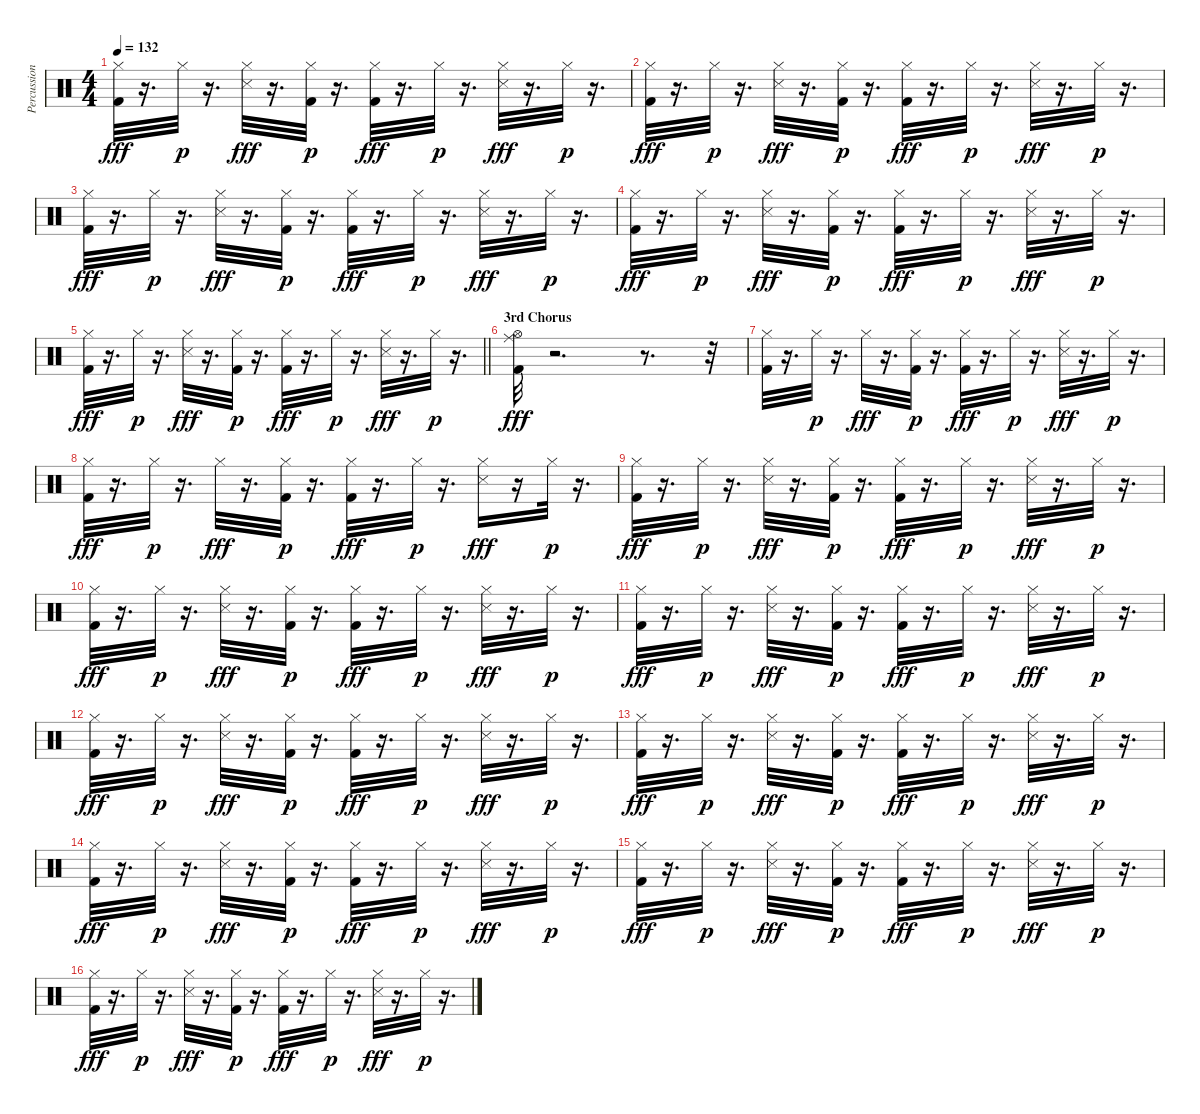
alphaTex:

\track ("Percussion" "Percussion") {instrument percussion}
\staff {score}
\articulation defaults
\ts (4 4)
\tempo 132
\clef neutral
\ks c
("Kick (hit) 2" "Hi-Hat (closed)").32{dy fff} r.16{d} "Hi-Hat (closed)".32{dy p} r.16{d} ("Hi-Hat (closed)" "Snare (side stick) 3").32{dy fff} r.16{d} ("Kick (hit) 2" "Hi-Hat (closed)").32{dy p} r.16{d} ("Kick (hit) 2" "Hi-Hat (closed)").32{dy fff} r.16{d} "Hi-Hat (closed)".32{dy p} r.16{d} ("Snare (side stick) 3" "Hi-Hat (closed)").32{dy fff} r.16{d} "Hi-Hat (closed)".32{dy p} r.16{d} |
("Kick (hit) 2" "Hi-Hat (closed)").32{dy fff} r.16{d} "Hi-Hat (closed)".32{dy p} r.16{d} ("Snare (side stick) 3" "Hi-Hat (closed)").32{dy fff} r.16{d} ("Kick (hit) 2" "Hi-Hat (closed)").32{dy p} r.16{d} ("Kick (hit) 2" "Hi-Hat (closed)").32{dy fff} r.16{d} "Hi-Hat (closed)".32{dy p} r.16{d} ("Hi-Hat (closed)" "Snare (side stick) 3").32{dy fff} r.16{d} "Hi-Hat (closed)".32{dy p} r.16{d} |
("Kick (hit) 2" "Hi-Hat (closed)").32{dy fff} r.16{d} "Hi-Hat (closed)".32{dy p} r.16{d} ("Hi-Hat (closed)" "Snare (side stick) 3").32{dy fff} r.16{d} ("Kick (hit) 2" "Hi-Hat (closed)").32{dy p} r.16{d} ("Kick (hit) 2" "Hi-Hat (closed)").32{dy fff} r.16{d} "Hi-Hat (closed)".32{dy p} r.16{d} ("Snare (side stick) 3" "Hi-Hat (closed)").32{dy fff} r.16{d} "Hi-Hat (closed)".32{dy p} r.16{d} |
("Kick (hit) 2" "Hi-Hat (closed)").32{dy fff} r.16{d} "Hi-Hat (closed)".32{dy p} r.16{d} ("Snare (side stick) 3" "Hi-Hat (closed)").32{dy fff} r.16{d} ("Kick (hit) 2" "Hi-Hat (closed)").32{dy p} r.16{d} ("Kick (hit) 2" "Hi-Hat (closed)").32{dy fff} r.16{d} "Hi-Hat (closed)".32{dy p} r.16{d} ("Hi-Hat (closed)" "Snare (side stick) 3").32{dy fff} r.16{d} "Hi-Hat (closed)".32{dy p} r.16{d} |
\barLineRight lightlight
("Kick (hit) 2" "Hi-Hat (closed)").32{dy fff} r.16{d} "Hi-Hat (closed)".32{dy p} r.16{d} ("Hi-Hat (closed)" "Snare (side stick) 3").32{dy fff} r.16{d} ("Kick (hit) 2" "Hi-Hat (closed)").32{dy p} r.16{d} ("Kick (hit) 2" "Hi-Hat (closed)").32{dy fff} r.16{d} "Hi-Hat (closed)".32{dy p} r.16{d} ("Snare (side stick) 3" "Hi-Hat (closed)").32{dy fff} r.16{d} "Hi-Hat (closed)".32{dy p} r.16{d} |
\section ("" "3rd Chorus")
("Kick (hit) 2" "Hi-Hat (open)" "Ride (middle)").32{dy fff} r.2{d} r.8{d} r.32 |
("Kick (hit) 2" "Hi-Hat (closed)").32 r.16{d} "Hi-Hat (closed)".32{dy p} r.16{d} "Hi-Hat (closed)".32{dy fff} r.16{d} ("Kick (hit) 2" "Hi-Hat (closed)").32{dy p} r.16{d} ("Kick (hit) 2" "Hi-Hat (closed)").32{dy fff} r.16{d} "Hi-Hat (closed)".32{dy p} r.16{d} ("Snare (side stick) 3" "Hi-Hat (closed)").32{dy fff} r.16{d} "Hi-Hat (closed)".32{dy p} r.16{d} |
("Kick (hit) 2" "Hi-Hat (closed)").32{dy fff} r.16{d} "Hi-Hat (closed)".32{dy p} r.16{d} "Hi-Hat (closed)".32{dy fff} r.16{d} ("Kick (hit) 2" "Hi-Hat (closed)").32{dy p} r.16{d} ("Kick (hit) 2" "Hi-Hat (closed)").32{dy fff} r.16{d} "Hi-Hat (closed)".32{dy p} r.16{d} ("Snare (side stick) 3" "Hi-Hat (closed)").16{dy fff} r.16 "Hi-Hat (closed)".32{dy p} r.16{d} |
("Kick (hit) 2" "Hi-Hat (closed)").32{dy fff} r.16{d} "Hi-Hat (closed)".32{dy p} r.16{d} ("Hi-Hat (closed)" "Snare (side stick) 3").32{dy fff} r.16{d} ("Kick (hit) 2" "Hi-Hat (closed)").32{dy p} r.16{d} ("Kick (hit) 2" "Hi-Hat (closed)").32{dy fff} r.16{d} "Hi-Hat (closed)".32{dy p} r.16{d} ("Snare (side stick) 3" "Hi-Hat (closed)").32{dy fff} r.16{d} "Hi-Hat (closed)".32{dy p} r.16{d} |
("Kick (hit) 2" "Hi-Hat (closed)").32{dy fff} r.16{d} "Hi-Hat (closed)".32{dy p} r.16{d} ("Hi-Hat (closed)" "Snare (side stick) 3").32{dy fff} r.16{d} ("Kick (hit) 2" "Hi-Hat (closed)").32{dy p} r.16{d} ("Kick (hit) 2" "Hi-Hat (closed)").32{dy fff} r.16{d} "Hi-Hat (closed)".32{dy p} r.16{d} ("Snare (side stick) 3" "Hi-Hat (closed)").32{dy fff} r.16{d} "Hi-Hat (closed)".32{dy p} r.16{d} |
("Kick (hit) 2" "Hi-Hat (closed)").32{dy fff} r.16{d} "Hi-Hat (closed)".32{dy p} r.16{d} ("Snare (side stick) 3" "Hi-Hat (closed)").32{dy fff} r.16{d} ("Kick (hit) 2" "Hi-Hat (closed)").32{dy p} r.16{d} ("Kick (hit) 2" "Hi-Hat (closed)").32{dy fff} r.16{d} "Hi-Hat (closed)".32{dy p} r.16{d} ("Snare (side stick) 3" "Hi-Hat (closed)").32{dy fff} r.16{d} "Hi-Hat (closed)".32{dy p} r.16{d} |
("Kick (hit) 2" "Hi-Hat (closed)").32{dy fff} r.16{d} "Hi-Hat (closed)".32{dy p} r.16{d} ("Snare (side stick) 3" "Hi-Hat (closed)").32{dy fff} r.16{d} ("Kick (hit) 2" "Hi-Hat (closed)").32{dy p} r.16{d} ("Kick (hit) 2" "Hi-Hat (closed)").32{dy fff} r.16{d} "Hi-Hat (closed)".32{dy p} r.16{d} ("Hi-Hat (closed)" "Snare (side stick) 3").32{dy fff} r.16{d} "Hi-Hat (closed)".32{dy p} r.16{d} |
("Kick (hit) 2" "Hi-Hat (closed)").32{dy fff} r.16{d} "Hi-Hat (closed)".32{dy p} r.16{d} ("Snare (side stick) 3" "Hi-Hat (closed)").32{dy fff} r.16{d} ("Kick (hit) 2" "Hi-Hat (closed)").32{dy p} r.16{d} ("Kick (hit) 2" "Hi-Hat (closed)").32{dy fff} r.16{d} "Hi-Hat (closed)".32{dy p} r.16{d} ("Hi-Hat (closed)" "Snare (side stick) 3").32{dy fff} r.16{d} "Hi-Hat (closed)".32{dy p} r.16{d} |
("Kick (hit) 2" "Hi-Hat (closed)").32{dy fff} r.16{d} "Hi-Hat (closed)".32{dy p} r.16{d} ("Snare (side stick) 3" "Hi-Hat (closed)").32{dy fff} r.16{d} ("Kick (hit) 2" "Hi-Hat (closed)").32{dy p} r.16{d} ("Kick (hit) 2" "Hi-Hat (closed)").32{dy fff} r.16{d} "Hi-Hat (closed)".32{dy p} r.16{d} ("Hi-Hat (closed)" "Snare (side stick) 3").32{dy fff} r.16{d} "Hi-Hat (closed)".32{dy p} r.16{d} |
("Kick (hit) 2" "Hi-Hat (closed)").32{dy fff} r.16{d} "Hi-Hat (closed)".32{dy p} r.16{d} ("Snare (side stick) 3" "Hi-Hat (closed)").32{dy fff} r.16{d} ("Kick (hit) 2" "Hi-Hat (closed)").32{dy p} r.16{d} ("Kick (hit) 2" "Hi-Hat (closed)").32{dy fff} r.16{d} "Hi-Hat (closed)".32{dy p} r.16{d} ("Snare (side stick) 3" "Hi-Hat (closed)").32{dy fff} r.16{d} "Hi-Hat (closed)".32{dy p} r.16{d} |
("Kick (hit) 2" "Hi-Hat (closed)").32{dy fff} r.16{d} "Hi-Hat (closed)".32{dy p} r.16{d} ("Snare (side stick) 3" "Hi-Hat (closed)").32{dy fff} r.16{d} ("Kick (hit) 2" "Hi-Hat (closed)").32{dy p} r.16{d} ("Kick (hit) 2" "Hi-Hat (closed)").32{dy fff} r.16{d} "Hi-Hat (closed)".32{dy p} r.16{d} ("Hi-Hat (closed)" "Snare (side stick) 3").32{dy fff} r.16{d} "Hi-Hat (closed)".32{dy p} r.16{d}
